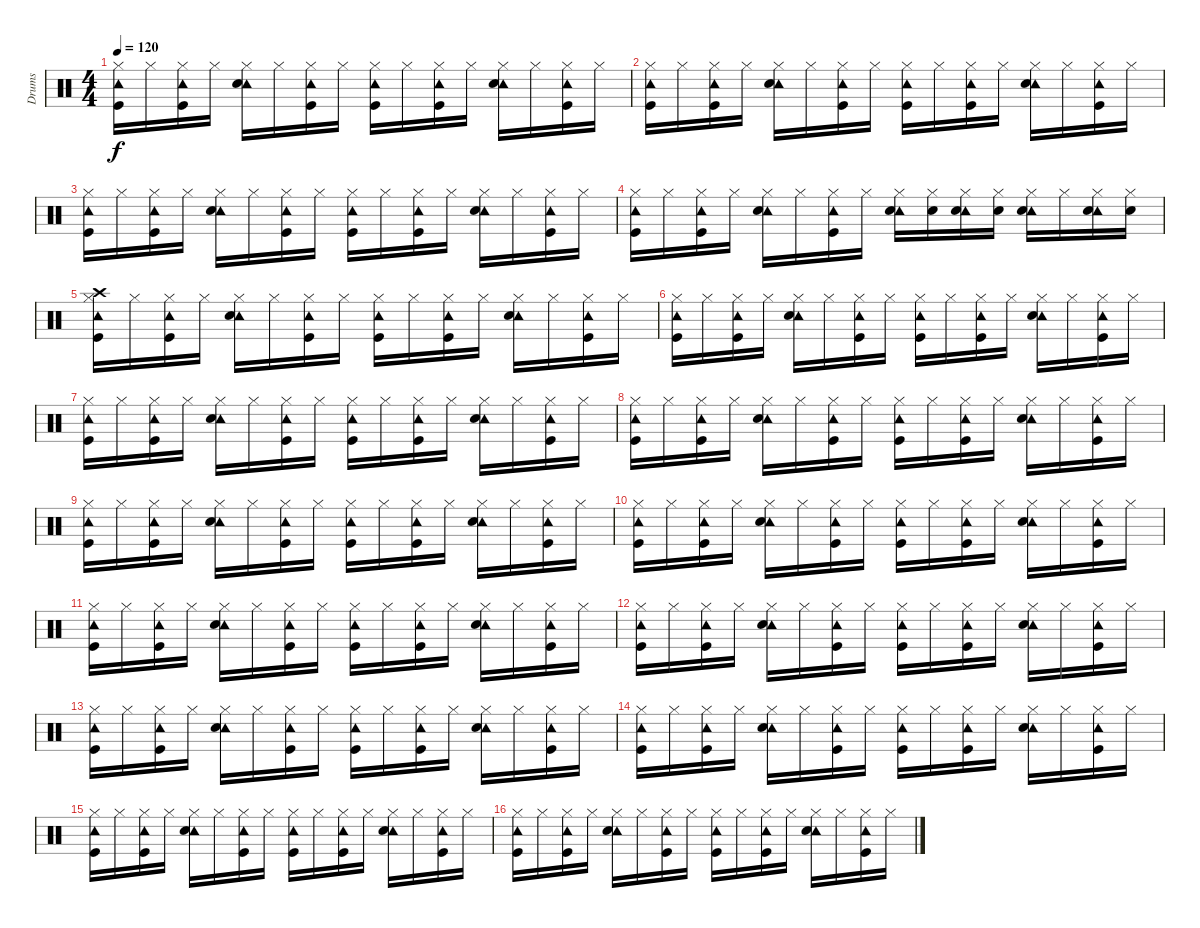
\track ("Drums" "Drums") {instrument percussion}
\staff {score}
\articulation defaults
\ts (4 4)
\tempo 120
\clef neutral
\ks c
("Hi-Hat (closed)" "Tambourine (hit)" "Kick (hit)").16{dy f} "Hi-Hat (closed)".16 ("Hi-Hat (closed)" "Tambourine (hit)" "Kick (hit)").16 "Hi-Hat (closed)".16 ("Hi-Hat (closed)" "Tambourine (hit)" "Snare (hit) 2").16 "Hi-Hat (closed)".16 ("Hi-Hat (closed)" "Tambourine (hit)" "Kick (hit)").16 "Hi-Hat (closed)".16 ("Hi-Hat (closed)" "Tambourine (hit)" "Kick (hit)").16 "Hi-Hat (closed)".16 ("Hi-Hat (closed)" "Tambourine (hit)" "Kick (hit)").16 "Hi-Hat (closed)".16 ("Hi-Hat (closed)" "Tambourine (hit)" "Snare (hit) 2").16 "Hi-Hat (closed)".16 ("Hi-Hat (closed)" "Tambourine (hit)" "Kick (hit)").16 "Hi-Hat (closed)".16 |
("Hi-Hat (closed)" "Tambourine (hit)" "Kick (hit)").16 "Hi-Hat (closed)".16 ("Hi-Hat (closed)" "Tambourine (hit)" "Kick (hit)").16 "Hi-Hat (closed)".16 ("Hi-Hat (closed)" "Tambourine (hit)" "Snare (hit) 2").16 "Hi-Hat (closed)".16 ("Hi-Hat (closed)" "Tambourine (hit)" "Kick (hit)").16 "Hi-Hat (closed)".16 ("Hi-Hat (closed)" "Tambourine (hit)" "Kick (hit)").16 "Hi-Hat (closed)".16 ("Hi-Hat (closed)" "Tambourine (hit)" "Kick (hit)").16 "Hi-Hat (closed)".16 ("Hi-Hat (closed)" "Tambourine (hit)" "Snare (hit) 2").16 "Hi-Hat (closed)".16 ("Hi-Hat (closed)" "Tambourine (hit)" "Kick (hit)").16 "Hi-Hat (closed)".16 |
("Hi-Hat (closed)" "Tambourine (hit)" "Kick (hit)").16 "Hi-Hat (closed)".16 ("Hi-Hat (closed)" "Tambourine (hit)" "Kick (hit)").16 "Hi-Hat (closed)".16 ("Hi-Hat (closed)" "Tambourine (hit)" "Snare (hit) 2").16 "Hi-Hat (closed)".16 ("Hi-Hat (closed)" "Tambourine (hit)" "Kick (hit)").16 "Hi-Hat (closed)".16 ("Hi-Hat (closed)" "Tambourine (hit)" "Kick (hit)").16 "Hi-Hat (closed)".16 ("Hi-Hat (closed)" "Tambourine (hit)" "Kick (hit)").16 "Hi-Hat (closed)".16 ("Hi-Hat (closed)" "Tambourine (hit)" "Snare (hit) 2").16 "Hi-Hat (closed)".16 ("Hi-Hat (closed)" "Tambourine (hit)" "Kick (hit)").16 "Hi-Hat (closed)".16 |
("Hi-Hat (closed)" "Tambourine (hit)" "Kick (hit)").16 "Hi-Hat (closed)".16 ("Hi-Hat (closed)" "Tambourine (hit)" "Kick (hit)").16 "Hi-Hat (closed)".16 ("Hi-Hat (closed)" "Tambourine (hit)" "Snare (hit) 2").16 "Hi-Hat (closed)".16 ("Hi-Hat (closed)" "Tambourine (hit)" "Kick (hit)").16 "Hi-Hat (closed)".16 ("Hi-Hat (closed)" "Tambourine (hit)" "Snare (hit) 2").16 ("Hi-Hat (closed)" "Snare (hit) 2").16 ("Hi-Hat (closed)" "Tambourine (hit)" "Snare (hit) 2").16 ("Hi-Hat (closed)" "Snare (hit) 2").16 ("Hi-Hat (closed)" "Tambourine (hit)" "Snare (hit) 2").16 "Hi-Hat (closed)".16 ("Hi-Hat (closed)" "Tambourine (hit)" "Snare (hit) 2").16 ("Hi-Hat (closed)" "Snare (hit) 2").16 |
("Crash high (hit)" "Hi-Hat (closed)" "Tambourine (hit)" "Kick (hit)").16 "Hi-Hat (closed)".16 ("Hi-Hat (closed)" "Tambourine (hit)" "Kick (hit)").16 "Hi-Hat (closed)".16 ("Hi-Hat (closed)" "Tambourine (hit)" "Snare (hit) 2").16 "Hi-Hat (closed)".16 ("Hi-Hat (closed)" "Tambourine (hit)" "Kick (hit)").16 "Hi-Hat (closed)".16 ("Hi-Hat (closed)" "Tambourine (hit)" "Kick (hit)").16 "Hi-Hat (closed)".16 ("Hi-Hat (closed)" "Tambourine (hit)" "Kick (hit)").16 "Hi-Hat (closed)".16 ("Hi-Hat (closed)" "Tambourine (hit)" "Snare (hit) 2").16 "Hi-Hat (closed)".16 ("Hi-Hat (closed)" "Tambourine (hit)" "Kick (hit)").16 "Hi-Hat (closed)".16 |
("Hi-Hat (closed)" "Tambourine (hit)" "Kick (hit)").16 "Hi-Hat (closed)".16 ("Hi-Hat (closed)" "Tambourine (hit)" "Kick (hit)").16 "Hi-Hat (closed)".16 ("Hi-Hat (closed)" "Tambourine (hit)" "Snare (hit) 2").16 "Hi-Hat (closed)".16 ("Hi-Hat (closed)" "Tambourine (hit)" "Kick (hit)").16 "Hi-Hat (closed)".16 ("Hi-Hat (closed)" "Tambourine (hit)" "Kick (hit)").16 "Hi-Hat (closed)".16 ("Hi-Hat (closed)" "Tambourine (hit)" "Kick (hit)").16 "Hi-Hat (closed)".16 ("Hi-Hat (closed)" "Tambourine (hit)" "Snare (hit) 2").16 "Hi-Hat (closed)".16 ("Hi-Hat (closed)" "Tambourine (hit)" "Kick (hit)").16 "Hi-Hat (closed)".16 |
("Hi-Hat (closed)" "Tambourine (hit)" "Kick (hit)").16 "Hi-Hat (closed)".16 ("Hi-Hat (closed)" "Tambourine (hit)" "Kick (hit)").16 "Hi-Hat (closed)".16 ("Hi-Hat (closed)" "Tambourine (hit)" "Snare (hit) 2").16 "Hi-Hat (closed)".16 ("Hi-Hat (closed)" "Tambourine (hit)" "Kick (hit)").16 "Hi-Hat (closed)".16 ("Hi-Hat (closed)" "Tambourine (hit)" "Kick (hit)").16 "Hi-Hat (closed)".16 ("Hi-Hat (closed)" "Tambourine (hit)" "Kick (hit)").16 "Hi-Hat (closed)".16 ("Hi-Hat (closed)" "Tambourine (hit)" "Snare (hit) 2").16 "Hi-Hat (closed)".16 ("Hi-Hat (closed)" "Tambourine (hit)" "Kick (hit)").16 "Hi-Hat (closed)".16 |
("Hi-Hat (closed)" "Tambourine (hit)" "Kick (hit)").16 "Hi-Hat (closed)".16 ("Hi-Hat (closed)" "Tambourine (hit)" "Kick (hit)").16 "Hi-Hat (closed)".16 ("Hi-Hat (closed)" "Tambourine (hit)" "Snare (hit) 2").16 "Hi-Hat (closed)".16 ("Hi-Hat (closed)" "Tambourine (hit)" "Kick (hit)").16 "Hi-Hat (closed)".16 ("Hi-Hat (closed)" "Tambourine (hit)" "Kick (hit)").16 "Hi-Hat (closed)".16 ("Hi-Hat (closed)" "Tambourine (hit)" "Kick (hit)").16 "Hi-Hat (closed)".16 ("Hi-Hat (closed)" "Tambourine (hit)" "Snare (hit) 2").16 "Hi-Hat (closed)".16 ("Hi-Hat (closed)" "Tambourine (hit)" "Kick (hit)").16 "Hi-Hat (closed)".16 |
("Hi-Hat (closed)" "Tambourine (hit)" "Kick (hit)").16 "Hi-Hat (closed)".16 ("Hi-Hat (closed)" "Tambourine (hit)" "Kick (hit)").16 "Hi-Hat (closed)".16 ("Hi-Hat (closed)" "Tambourine (hit)" "Snare (hit) 2").16 "Hi-Hat (closed)".16 ("Hi-Hat (closed)" "Tambourine (hit)" "Kick (hit)").16 "Hi-Hat (closed)".16 ("Hi-Hat (closed)" "Tambourine (hit)" "Kick (hit)").16 "Hi-Hat (closed)".16 ("Hi-Hat (closed)" "Tambourine (hit)" "Kick (hit)").16 "Hi-Hat (closed)".16 ("Hi-Hat (closed)" "Tambourine (hit)" "Snare (hit) 2").16 "Hi-Hat (closed)".16 ("Hi-Hat (closed)" "Tambourine (hit)" "Kick (hit)").16 "Hi-Hat (closed)".16 |
("Hi-Hat (closed)" "Tambourine (hit)" "Kick (hit)").16 "Hi-Hat (closed)".16 ("Hi-Hat (closed)" "Tambourine (hit)" "Kick (hit)").16 "Hi-Hat (closed)".16 ("Hi-Hat (closed)" "Tambourine (hit)" "Snare (hit) 2").16 "Hi-Hat (closed)".16 ("Hi-Hat (closed)" "Tambourine (hit)" "Kick (hit)").16 "Hi-Hat (closed)".16 ("Hi-Hat (closed)" "Tambourine (hit)" "Kick (hit)").16 "Hi-Hat (closed)".16 ("Hi-Hat (closed)" "Tambourine (hit)" "Kick (hit)").16 "Hi-Hat (closed)".16 ("Hi-Hat (closed)" "Tambourine (hit)" "Snare (hit) 2").16 "Hi-Hat (closed)".16 ("Hi-Hat (closed)" "Tambourine (hit)" "Kick (hit)").16 "Hi-Hat (closed)".16 |
("Hi-Hat (closed)" "Tambourine (hit)" "Kick (hit)").16 "Hi-Hat (closed)".16 ("Hi-Hat (closed)" "Tambourine (hit)" "Kick (hit)").16 "Hi-Hat (closed)".16 ("Hi-Hat (closed)" "Tambourine (hit)" "Snare (hit) 2").16 "Hi-Hat (closed)".16 ("Hi-Hat (closed)" "Tambourine (hit)" "Kick (hit)").16 "Hi-Hat (closed)".16 ("Hi-Hat (closed)" "Tambourine (hit)" "Kick (hit)").16 "Hi-Hat (closed)".16 ("Hi-Hat (closed)" "Tambourine (hit)" "Kick (hit)").16 "Hi-Hat (closed)".16 ("Hi-Hat (closed)" "Tambourine (hit)" "Snare (hit) 2").16 "Hi-Hat (closed)".16 ("Hi-Hat (closed)" "Tambourine (hit)" "Kick (hit)").16 "Hi-Hat (closed)".16 |
("Hi-Hat (closed)" "Tambourine (hit)" "Kick (hit)").16 "Hi-Hat (closed)".16 ("Hi-Hat (closed)" "Tambourine (hit)" "Kick (hit)").16 "Hi-Hat (closed)".16 ("Hi-Hat (closed)" "Tambourine (hit)" "Snare (hit) 2").16 "Hi-Hat (closed)".16 ("Hi-Hat (closed)" "Tambourine (hit)" "Kick (hit)").16 "Hi-Hat (closed)".16 ("Hi-Hat (closed)" "Tambourine (hit)" "Kick (hit)").16 "Hi-Hat (closed)".16 ("Hi-Hat (closed)" "Tambourine (hit)" "Kick (hit)").16 "Hi-Hat (closed)".16 ("Hi-Hat (closed)" "Tambourine (hit)" "Snare (hit) 2").16 "Hi-Hat (closed)".16 ("Hi-Hat (closed)" "Tambourine (hit)" "Kick (hit)").16 "Hi-Hat (closed)".16 |
("Hi-Hat (closed)" "Tambourine (hit)" "Kick (hit)").16 "Hi-Hat (closed)".16 ("Hi-Hat (closed)" "Tambourine (hit)" "Kick (hit)").16 "Hi-Hat (closed)".16 ("Hi-Hat (closed)" "Tambourine (hit)" "Snare (hit) 2").16 "Hi-Hat (closed)".16 ("Hi-Hat (closed)" "Tambourine (hit)" "Kick (hit)").16 "Hi-Hat (closed)".16 ("Hi-Hat (closed)" "Tambourine (hit)" "Kick (hit)").16 "Hi-Hat (closed)".16 ("Hi-Hat (closed)" "Tambourine (hit)" "Kick (hit)").16 "Hi-Hat (closed)".16 ("Hi-Hat (closed)" "Tambourine (hit)" "Snare (hit) 2").16 "Hi-Hat (closed)".16 ("Hi-Hat (closed)" "Tambourine (hit)" "Kick (hit)").16 "Hi-Hat (closed)".16 |
("Hi-Hat (closed)" "Tambourine (hit)" "Kick (hit)").16 "Hi-Hat (closed)".16 ("Hi-Hat (closed)" "Tambourine (hit)" "Kick (hit)").16 "Hi-Hat (closed)".16 ("Hi-Hat (closed)" "Tambourine (hit)" "Snare (hit) 2").16 "Hi-Hat (closed)".16 ("Hi-Hat (closed)" "Tambourine (hit)" "Kick (hit)").16 "Hi-Hat (closed)".16 ("Hi-Hat (closed)" "Tambourine (hit)" "Kick (hit)").16 "Hi-Hat (closed)".16 ("Hi-Hat (closed)" "Tambourine (hit)" "Kick (hit)").16 "Hi-Hat (closed)".16 ("Hi-Hat (closed)" "Tambourine (hit)" "Snare (hit) 2").16 "Hi-Hat (closed)".16 ("Hi-Hat (closed)" "Tambourine (hit)" "Kick (hit)").16 "Hi-Hat (closed)".16 |
("Hi-Hat (closed)" "Tambourine (hit)" "Kick (hit)").16 "Hi-Hat (closed)".16 ("Hi-Hat (closed)" "Tambourine (hit)" "Kick (hit)").16 "Hi-Hat (closed)".16 ("Hi-Hat (closed)" "Tambourine (hit)" "Snare (hit) 2").16 "Hi-Hat (closed)".16 ("Hi-Hat (closed)" "Tambourine (hit)" "Kick (hit)").16 "Hi-Hat (closed)".16 ("Hi-Hat (closed)" "Tambourine (hit)" "Kick (hit)").16 "Hi-Hat (closed)".16 ("Hi-Hat (closed)" "Tambourine (hit)" "Kick (hit)").16 "Hi-Hat (closed)".16 ("Hi-Hat (closed)" "Tambourine (hit)" "Snare (hit) 2").16 "Hi-Hat (closed)".16 ("Hi-Hat (closed)" "Tambourine (hit)" "Kick (hit)").16 "Hi-Hat (closed)".16 |
("Hi-Hat (closed)" "Tambourine (hit)" "Kick (hit)").16 "Hi-Hat (closed)".16 ("Hi-Hat (closed)" "Tambourine (hit)" "Kick (hit)").16 "Hi-Hat (closed)".16 ("Hi-Hat (closed)" "Tambourine (hit)" "Snare (hit) 2").16 "Hi-Hat (closed)".16 ("Hi-Hat (closed)" "Tambourine (hit)" "Kick (hit)").16 "Hi-Hat (closed)".16 ("Hi-Hat (closed)" "Tambourine (hit)" "Kick (hit)").16 "Hi-Hat (closed)".16 ("Hi-Hat (closed)" "Tambourine (hit)" "Kick (hit)").16 "Hi-Hat (closed)".16 ("Hi-Hat (closed)" "Tambourine (hit)" "Snare (hit) 2").16 "Hi-Hat (closed)".16 ("Hi-Hat (closed)" "Tambourine (hit)" "Kick (hit)").16 "Hi-Hat (closed)".16
